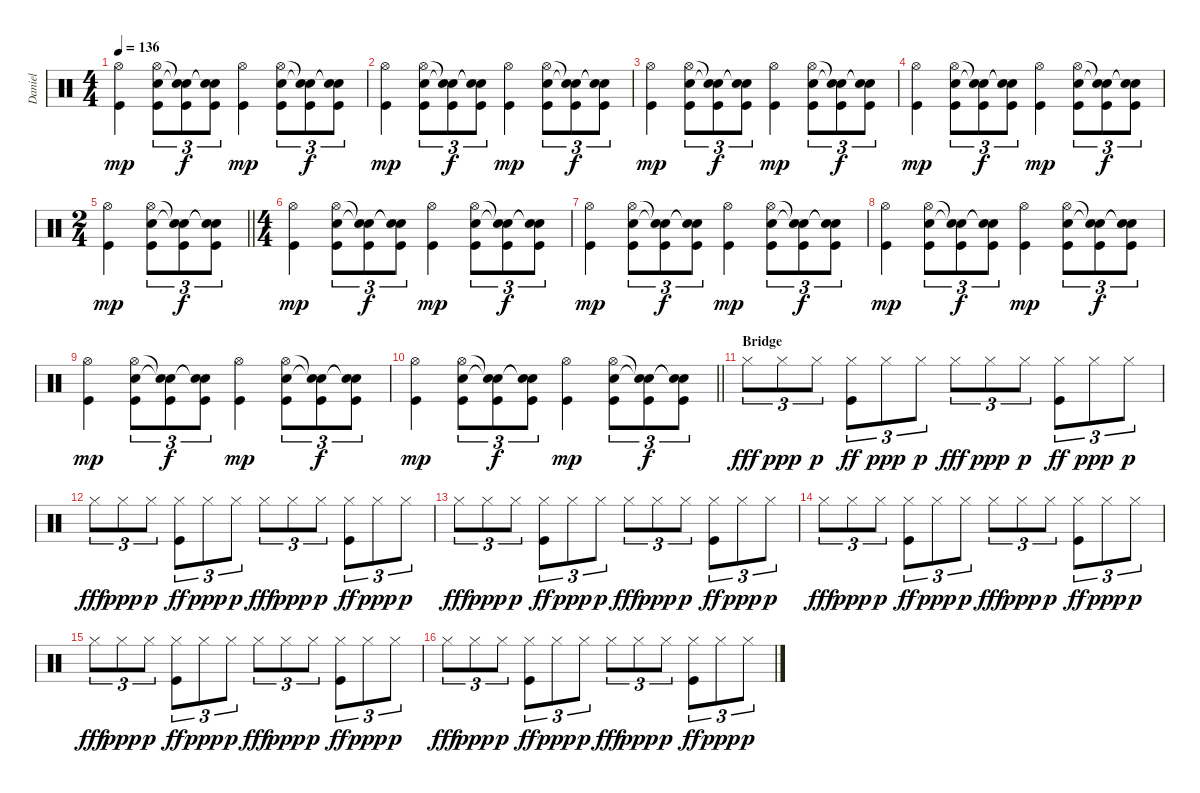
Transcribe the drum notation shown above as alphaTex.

\track ("Daniel" "Daniel") {instrument percussion}
\staff {score}
\articulation defaults
\ts (4 4)
\tempo 136
\clef neutral
\ks c
("Hi-Hat (open)" "Kick (hit)").4{dy mp} ("Hi-Hat (open)" "Snare (hit) 2" "Kick (hit)").8{tu (3 2)} ("Snare (hit)"{t} "Snare (hit)"{t} "Kick (hit)").8{tu (3 2) dy f} ("Snare (hit)"{t} "Snare (hit)"{t} "Kick (hit)").8{tu (3 2)} ("Hi-Hat (open)" "Kick (hit)").4{dy mp} ("Hi-Hat (open)" "Snare (hit) 2" "Kick (hit)").8{tu (3 2)} ("Snare (hit)"{t} "Snare (hit)"{t} "Kick (hit)").8{tu (3 2) dy f} ("Snare (hit)"{t} "Snare (hit)"{t} "Kick (hit)").8{tu (3 2)} |
("Hi-Hat (open)" "Kick (hit)").4{dy mp} ("Hi-Hat (open)" "Snare (hit) 2" "Kick (hit)").8{tu (3 2)} ("Snare (hit)"{t} "Snare (hit)"{t} "Kick (hit)").8{tu (3 2) dy f} ("Snare (hit)"{t} "Snare (hit)"{t} "Kick (hit)").8{tu (3 2)} ("Hi-Hat (open)" "Kick (hit)").4{dy mp} ("Hi-Hat (open)" "Snare (hit) 2" "Kick (hit)").8{tu (3 2)} ("Snare (hit)"{t} "Snare (hit)"{t} "Kick (hit)").8{tu (3 2) dy f} ("Snare (hit)"{t} "Snare (hit)"{t} "Kick (hit)").8{tu (3 2)} |
("Hi-Hat (open)" "Kick (hit)").4{dy mp} ("Hi-Hat (open)" "Snare (hit) 2" "Kick (hit)").8{tu (3 2)} ("Snare (hit)"{t} "Snare (hit)"{t} "Kick (hit)").8{tu (3 2) dy f} ("Snare (hit)"{t} "Snare (hit)"{t} "Kick (hit)").8{tu (3 2)} ("Hi-Hat (open)" "Kick (hit)").4{dy mp} ("Hi-Hat (open)" "Snare (hit) 2" "Kick (hit)").8{tu (3 2)} ("Snare (hit)"{t} "Snare (hit)"{t} "Kick (hit)").8{tu (3 2) dy f} ("Snare (hit)"{t} "Snare (hit)"{t} "Kick (hit)").8{tu (3 2)} |
("Hi-Hat (open)" "Kick (hit)").4{dy mp} ("Hi-Hat (open)" "Snare (hit) 2" "Kick (hit)").8{tu (3 2)} ("Snare (hit)"{t} "Snare (hit)"{t} "Kick (hit)").8{tu (3 2) dy f} ("Snare (hit)"{t} "Snare (hit)"{t} "Kick (hit)").8{tu (3 2)} ("Hi-Hat (open)" "Kick (hit)").4{dy mp} ("Hi-Hat (open)" "Snare (hit) 2" "Kick (hit)").8{tu (3 2)} ("Snare (hit)"{t} "Snare (hit)"{t} "Kick (hit)").8{tu (3 2) dy f} ("Snare (hit)"{t} "Snare (hit)"{t} "Kick (hit)").8{tu (3 2)} |
\ts (2 4)
\barLineRight lightlight
("Hi-Hat (open)" "Kick (hit)").4{dy mp} ("Hi-Hat (open)" "Snare (hit) 2" "Kick (hit)").8{tu (3 2)} ("Snare (hit)"{t} "Snare (hit)"{t} "Kick (hit)").8{tu (3 2) dy f} ("Snare (hit)"{t} "Snare (hit)"{t} "Kick (hit)").8{tu (3 2)} |
\ts (4 4)
("Hi-Hat (open)" "Kick (hit)").4{dy mp} ("Hi-Hat (open)" "Snare (hit) 2" "Kick (hit)").8{tu (3 2)} ("Snare (hit)"{t} "Snare (hit)"{t} "Kick (hit)").8{tu (3 2) dy f} ("Snare (hit)"{t} "Snare (hit)"{t} "Kick (hit)").8{tu (3 2)} ("Hi-Hat (open)" "Kick (hit)").4{dy mp} ("Hi-Hat (open)" "Snare (hit) 2" "Kick (hit)").8{tu (3 2)} ("Snare (hit)"{t} "Snare (hit)"{t} "Kick (hit)").8{tu (3 2) dy f} ("Snare (hit)"{t} "Snare (hit)"{t} "Kick (hit)").8{tu (3 2)} |
("Hi-Hat (open)" "Kick (hit)").4{dy mp} ("Hi-Hat (open)" "Snare (hit) 2" "Kick (hit)").8{tu (3 2)} ("Snare (hit)"{t} "Snare (hit)"{t} "Kick (hit)").8{tu (3 2) dy f} ("Snare (hit)"{t} "Snare (hit)"{t} "Kick (hit)").8{tu (3 2)} ("Hi-Hat (open)" "Kick (hit)").4{dy mp} ("Hi-Hat (open)" "Snare (hit) 2" "Kick (hit)").8{tu (3 2)} ("Snare (hit)"{t} "Snare (hit)"{t} "Kick (hit)").8{tu (3 2) dy f} ("Snare (hit)"{t} "Snare (hit)"{t} "Kick (hit)").8{tu (3 2)} |
("Hi-Hat (open)" "Kick (hit)").4{dy mp} ("Hi-Hat (open)" "Snare (hit) 2" "Kick (hit)").8{tu (3 2)} ("Snare (hit)"{t} "Snare (hit)"{t} "Kick (hit)").8{tu (3 2) dy f} ("Snare (hit)"{t} "Snare (hit)"{t} "Kick (hit)").8{tu (3 2)} ("Hi-Hat (open)" "Kick (hit)").4{dy mp} ("Hi-Hat (open)" "Snare (hit) 2" "Kick (hit)").8{tu (3 2)} ("Snare (hit)"{t} "Snare (hit)"{t} "Kick (hit)").8{tu (3 2) dy f} ("Snare (hit)"{t} "Snare (hit)"{t} "Kick (hit)").8{tu (3 2)} |
("Hi-Hat (open)" "Kick (hit)").4{dy mp} ("Hi-Hat (open)" "Snare (hit) 2" "Kick (hit)").8{tu (3 2)} ("Snare (hit)"{t} "Snare (hit)"{t} "Kick (hit)").8{tu (3 2) dy f} ("Snare (hit)"{t} "Snare (hit)"{t} "Kick (hit)").8{tu (3 2)} ("Hi-Hat (open)" "Kick (hit)").4{dy mp} ("Hi-Hat (open)" "Snare (hit) 2" "Kick (hit)").8{tu (3 2)} ("Snare (hit)"{t} "Snare (hit)"{t} "Kick (hit)").8{tu (3 2) dy f} ("Snare (hit)"{t} "Snare (hit)"{t} "Kick (hit)").8{tu (3 2)} |
\barLineRight lightlight
("Hi-Hat (open)" "Kick (hit)").4{dy mp} ("Hi-Hat (open)" "Snare (hit) 2" "Kick (hit)").8{tu (3 2)} ("Snare (hit)"{t} "Snare (hit)"{t} "Kick (hit)").8{tu (3 2) dy f} ("Snare (hit)"{t} "Snare (hit)"{t} "Kick (hit)").8{tu (3 2)} ("Hi-Hat (open)" "Kick (hit)").4{dy mp} ("Hi-Hat (open)" "Snare (hit) 2" "Kick (hit)").8{tu (3 2)} ("Snare (hit)"{t} "Snare (hit)"{t} "Kick (hit)").8{tu (3 2) dy f} ("Snare (hit)"{t} "Snare (hit)"{t} "Kick (hit)").8{tu (3 2)} |
\section ("" "Bridge")
"Hi-Hat (closed)".8{tu (3 2) dy fff} "Hi-Hat (closed)".8{tu (3 2) dy ppp} "Hi-Hat (closed)".8{tu (3 2) dy p} ("Hi-Hat (closed)" "Kick (hit)").8{tu (3 2) dy ff} "Hi-Hat (closed)".8{tu (3 2) dy ppp} "Hi-Hat (closed)".8{tu (3 2) dy p} "Hi-Hat (closed)".8{tu (3 2) dy fff} "Hi-Hat (closed)".8{tu (3 2) dy ppp} "Hi-Hat (closed)".8{tu (3 2) dy p} ("Hi-Hat (closed)" "Kick (hit)").8{tu (3 2) dy ff} "Hi-Hat (closed)".8{tu (3 2) dy ppp} "Hi-Hat (closed)".8{tu (3 2) dy p} |
"Hi-Hat (closed)".8{tu (3 2) dy fff} "Hi-Hat (closed)".8{tu (3 2) dy ppp} "Hi-Hat (closed)".8{tu (3 2) dy p} ("Hi-Hat (closed)" "Kick (hit)").8{tu (3 2) dy ff} "Hi-Hat (closed)".8{tu (3 2) dy ppp} "Hi-Hat (closed)".8{tu (3 2) dy p} "Hi-Hat (closed)".8{tu (3 2) dy fff} "Hi-Hat (closed)".8{tu (3 2) dy ppp} "Hi-Hat (closed)".8{tu (3 2) dy p} ("Hi-Hat (closed)" "Kick (hit)").8{tu (3 2) dy ff} "Hi-Hat (closed)".8{tu (3 2) dy ppp} "Hi-Hat (closed)".8{tu (3 2) dy p} |
"Hi-Hat (closed)".8{tu (3 2) dy fff} "Hi-Hat (closed)".8{tu (3 2) dy ppp} "Hi-Hat (closed)".8{tu (3 2) dy p} ("Hi-Hat (closed)" "Kick (hit)").8{tu (3 2) dy ff} "Hi-Hat (closed)".8{tu (3 2) dy ppp} "Hi-Hat (closed)".8{tu (3 2) dy p} "Hi-Hat (closed)".8{tu (3 2) dy fff} "Hi-Hat (closed)".8{tu (3 2) dy ppp} "Hi-Hat (closed)".8{tu (3 2) dy p} ("Hi-Hat (closed)" "Kick (hit)").8{tu (3 2) dy ff} "Hi-Hat (closed)".8{tu (3 2) dy ppp} "Hi-Hat (closed)".8{tu (3 2) dy p} |
"Hi-Hat (closed)".8{tu (3 2) dy fff} "Hi-Hat (closed)".8{tu (3 2) dy ppp} "Hi-Hat (closed)".8{tu (3 2) dy p} ("Hi-Hat (closed)" "Kick (hit)").8{tu (3 2) dy ff} "Hi-Hat (closed)".8{tu (3 2) dy ppp} "Hi-Hat (closed)".8{tu (3 2) dy p} "Hi-Hat (closed)".8{tu (3 2) dy fff} "Hi-Hat (closed)".8{tu (3 2) dy ppp} "Hi-Hat (closed)".8{tu (3 2) dy p} ("Hi-Hat (closed)" "Kick (hit)").8{tu (3 2) dy ff} "Hi-Hat (closed)".8{tu (3 2) dy ppp} "Hi-Hat (closed)".8{tu (3 2) dy p} |
"Hi-Hat (closed)".8{tu (3 2) dy fff} "Hi-Hat (closed)".8{tu (3 2) dy ppp} "Hi-Hat (closed)".8{tu (3 2) dy p} ("Hi-Hat (closed)" "Kick (hit)").8{tu (3 2) dy ff} "Hi-Hat (closed)".8{tu (3 2) dy ppp} "Hi-Hat (closed)".8{tu (3 2) dy p} "Hi-Hat (closed)".8{tu (3 2) dy fff} "Hi-Hat (closed)".8{tu (3 2) dy ppp} "Hi-Hat (closed)".8{tu (3 2) dy p} ("Hi-Hat (closed)" "Kick (hit)").8{tu (3 2) dy ff} "Hi-Hat (closed)".8{tu (3 2) dy ppp} "Hi-Hat (closed)".8{tu (3 2) dy p} |
"Hi-Hat (closed)".8{tu (3 2) dy fff} "Hi-Hat (closed)".8{tu (3 2) dy ppp} "Hi-Hat (closed)".8{tu (3 2) dy p} ("Hi-Hat (closed)" "Kick (hit)").8{tu (3 2) dy ff} "Hi-Hat (closed)".8{tu (3 2) dy ppp} "Hi-Hat (closed)".8{tu (3 2) dy p} "Hi-Hat (closed)".8{tu (3 2) dy fff} "Hi-Hat (closed)".8{tu (3 2) dy ppp} "Hi-Hat (closed)".8{tu (3 2) dy p} ("Hi-Hat (closed)" "Kick (hit)").8{tu (3 2) dy ff} "Hi-Hat (closed)".8{tu (3 2) dy ppp} "Hi-Hat (closed)".8{tu (3 2) dy p}
